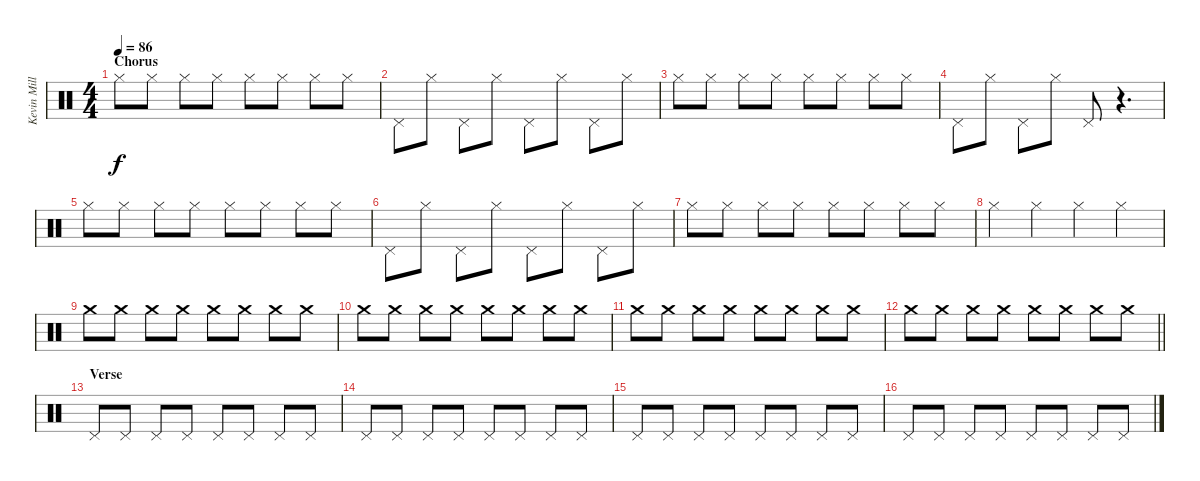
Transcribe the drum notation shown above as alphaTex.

\track ("Kevin Miller (Drums)" "Kevin Mill") {instrument percussion}
\staff {score}
\articulation defaults
\ts (4 4)
\section ("" "Chorus")
\tempo 86
\clef neutral
\ks c "Hi-Hat (closed)".8{dy f} "Hi-Hat (closed)".8 "Hi-Hat (closed)".8 "Hi-Hat (closed)".8 "Hi-Hat (closed)".8 "Hi-Hat (closed)".8 "Hi-Hat (closed)".8 "Hi-Hat (closed)".8
|
"Pedal Hi-Hat (hit)".8 "Hi-Hat (closed)".8 "Pedal Hi-Hat (hit)".8 "Hi-Hat (closed)".8 "Pedal Hi-Hat (hit)".8 "Hi-Hat (closed)".8 "Pedal Hi-Hat (hit)".8 "Hi-Hat (closed)".8 |
"Hi-Hat (closed)".8 "Hi-Hat (closed)".8 "Hi-Hat (closed)".8 "Hi-Hat (closed)".8 "Hi-Hat (closed)".8 "Hi-Hat (closed)".8 "Hi-Hat (closed)".8 "Hi-Hat (closed)".8 |
"Pedal Hi-Hat (hit)".8 "Hi-Hat (closed)".8 "Pedal Hi-Hat (hit)".8 "Hi-Hat (closed)".8 "Pedal Hi-Hat (hit)".8 r.4{d} |
"Hi-Hat (closed)".8 "Hi-Hat (closed)".8 "Hi-Hat (closed)".8 "Hi-Hat (closed)".8 "Hi-Hat (closed)".8 "Hi-Hat (closed)".8 "Hi-Hat (closed)".8 "Hi-Hat (closed)".8 |
"Pedal Hi-Hat (hit)".8 "Hi-Hat (closed)".8 "Pedal Hi-Hat (hit)".8 "Hi-Hat (closed)".8 "Pedal Hi-Hat (hit)".8 "Hi-Hat (closed)".8 "Pedal Hi-Hat (hit)".8 "Hi-Hat (closed)".8 |
"Hi-Hat (closed)".8 "Hi-Hat (closed)".8 "Hi-Hat (closed)".8 "Hi-Hat (closed)".8 "Hi-Hat (closed)".8 "Hi-Hat (closed)".8 "Hi-Hat (closed)".8 "Hi-Hat (closed)".8 |
"Hi-Hat (closed)".4 "Hi-Hat (closed)".4 "Hi-Hat (closed)".4 "Hi-Hat (closed)".4 |
"Crash medium (hit)".8 "Crash medium (hit)".8 "Crash medium (hit)".8 "Crash medium (hit)".8 "Crash medium (hit)".8 "Crash medium (hit)".8 "Crash medium (hit)".8 "Crash medium (hit)".8 |
"Crash medium (hit)".8 "Crash medium (hit)".8 "Crash medium (hit)".8 "Crash medium (hit)".8 "Crash medium (hit)".8 "Crash medium (hit)".8 "Crash medium (hit)".8 "Crash medium (hit)".8 |
"Crash medium (hit)".8 "Crash medium (hit)".8 "Crash medium (hit)".8 "Crash medium (hit)".8 "Crash medium (hit)".8 "Crash medium (hit)".8 "Crash medium (hit)".8 "Crash medium (hit)".8 |
\barLineRight lightlight "Crash medium (hit)".8 "Crash medium (hit)".8 "Crash medium (hit)".8 "Crash medium (hit)".8 "Crash medium (hit)".8 "Crash medium (hit)".8 "Crash medium (hit)".8 "Crash medium (hit)".8
|
\section ("" "Verse")
"Pedal Hi-Hat (hit)".8 "Pedal Hi-Hat (hit)".8 "Pedal Hi-Hat (hit)".8 "Pedal Hi-Hat (hit)".8 "Pedal Hi-Hat (hit)".8 "Pedal Hi-Hat (hit)".8 "Pedal Hi-Hat (hit)".8 "Pedal Hi-Hat (hit)".8 |
"Pedal Hi-Hat (hit)".8 "Pedal Hi-Hat (hit)".8 "Pedal Hi-Hat (hit)".8 "Pedal Hi-Hat (hit)".8 "Pedal Hi-Hat (hit)".8 "Pedal Hi-Hat (hit)".8 "Pedal Hi-Hat (hit)".8 "Pedal Hi-Hat (hit)".8 |
"Pedal Hi-Hat (hit)".8 "Pedal Hi-Hat (hit)".8 "Pedal Hi-Hat (hit)".8 "Pedal Hi-Hat (hit)".8 "Pedal Hi-Hat (hit)".8 "Pedal Hi-Hat (hit)".8 "Pedal Hi-Hat (hit)".8 "Pedal Hi-Hat (hit)".8 |
"Pedal Hi-Hat (hit)".8 "Pedal Hi-Hat (hit)".8 "Pedal Hi-Hat (hit)".8 "Pedal Hi-Hat (hit)".8 "Pedal Hi-Hat (hit)".8 "Pedal Hi-Hat (hit)".8 "Pedal Hi-Hat (hit)".8 "Pedal Hi-Hat (hit)".8
